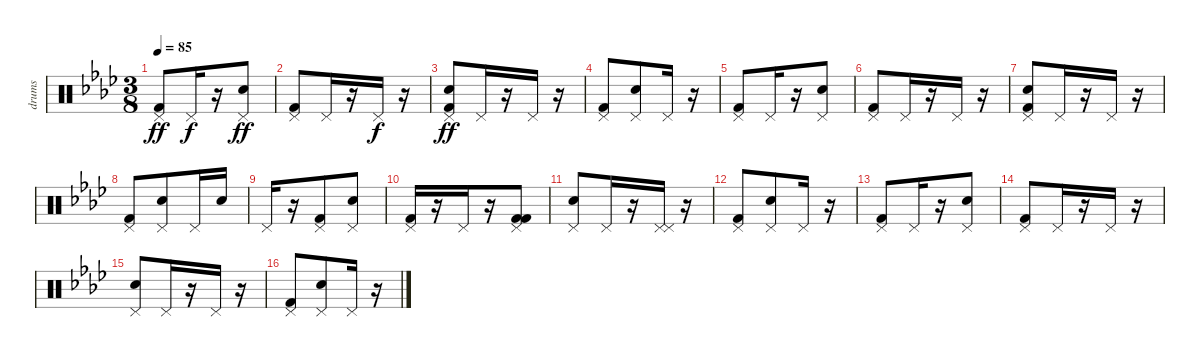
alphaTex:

\track ("drums" "drums") {instrument percussion}
\staff {score}
\articulation defaults
\ts (3 8)
\tempo 85
\clef neutral
\ks fminor
("Kick (hit) 2" "Pedal Hi-Hat (hit)").8{dy ff} "Pedal Hi-Hat (hit)".16{dy f} r.16 ("Electric Snare (hit)" "Pedal Hi-Hat (hit)").8{dy ff} |
("Kick (hit) 2" "Pedal Hi-Hat (hit)").8 "Pedal Hi-Hat (hit)".16 r.16 "Pedal Hi-Hat (hit)".16{dy f} r.16 |
("Pedal Hi-Hat (hit)" "Kick (hit) 2" "Electric Snare (hit)").8{dy ff} "Pedal Hi-Hat (hit)".16 r.16 "Pedal Hi-Hat (hit)".16 r.16 |
("Kick (hit) 2" "Pedal Hi-Hat (hit)").8 ("Electric Snare (hit)" "Pedal Hi-Hat (hit)").8 "Pedal Hi-Hat (hit)".16 r.16 |
("Kick (hit) 2" "Pedal Hi-Hat (hit)").8 "Pedal Hi-Hat (hit)".16 r.16 ("Pedal Hi-Hat (hit)" "Electric Snare (hit)").8 |
("Pedal Hi-Hat (hit)" "Kick (hit) 2").8 "Pedal Hi-Hat (hit)".16 r.16 "Pedal Hi-Hat (hit)".16 r.16 |
("Pedal Hi-Hat (hit)" "Kick (hit) 2" "Electric Snare (hit)").8 "Pedal Hi-Hat (hit)".16 r.16 "Pedal Hi-Hat (hit)".16 r.16 |
("Kick (hit) 2" "Pedal Hi-Hat (hit)").8 ("Electric Snare (hit)" "Pedal Hi-Hat (hit)").8 "Pedal Hi-Hat (hit)".16 "Electric Snare (hit)".16 |
"Pedal Hi-Hat (hit)".16 r.16 ("Pedal Hi-Hat (hit)" "Kick (hit) 2").8 ("Pedal Hi-Hat (hit)" "Electric Snare (hit)").8 |
("Kick (hit) 2" "Pedal Hi-Hat (hit)").16 r.16 "Pedal Hi-Hat (hit)".16 r.16 ("Pedal Hi-Hat (hit)" "Kick (hit) 2" "Kick (hit) 2").8 |
("Electric Snare (hit)" "Pedal Hi-Hat (hit)").8 "Pedal Hi-Hat (hit)".16 r.16 ("Pedal Hi-Hat (hit)" "Pedal Hi-Hat (hit)").16 r.16 |
("Pedal Hi-Hat (hit)" "Kick (hit) 2").8 ("Electric Snare (hit)" "Pedal Hi-Hat (hit)").8 "Pedal Hi-Hat (hit)".16 r.16 |
("Pedal Hi-Hat (hit)" "Kick (hit) 2").8 "Pedal Hi-Hat (hit)".16 r.16 ("Pedal Hi-Hat (hit)" "Electric Snare (hit)").8 |
("Pedal Hi-Hat (hit)" "Kick (hit) 2").8 "Pedal Hi-Hat (hit)".16 r.16 "Pedal Hi-Hat (hit)".16 r.16 |
("Electric Snare (hit)" "Pedal Hi-Hat (hit)").8 "Pedal Hi-Hat (hit)".16 r.16 "Pedal Hi-Hat (hit)".16 r.16 |
("Pedal Hi-Hat (hit)" "Kick (hit) 2").8 ("Electric Snare (hit)" "Pedal Hi-Hat (hit)").8 "Pedal Hi-Hat (hit)".16 r.16
